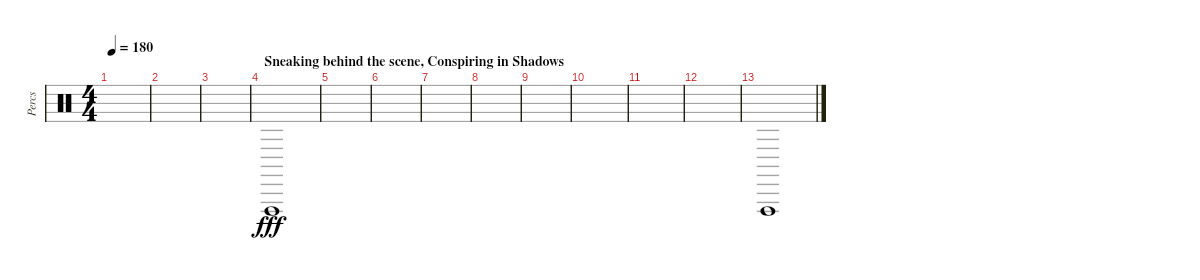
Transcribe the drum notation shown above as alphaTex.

\track ("Percs" "Percs") {instrument percussion}
\staff {score}
\articulation defaults
\ts (4 4)
\tempo 180
\clef neutral
\ks c
|
|
|
\section ("" "Sneaking behind the scene, Conspiring in Shadows")
"Vibraslap (hit)".1{dy fff} |
|
|
|
|
|
|
|
|
"Vibraslap (hit)".1
